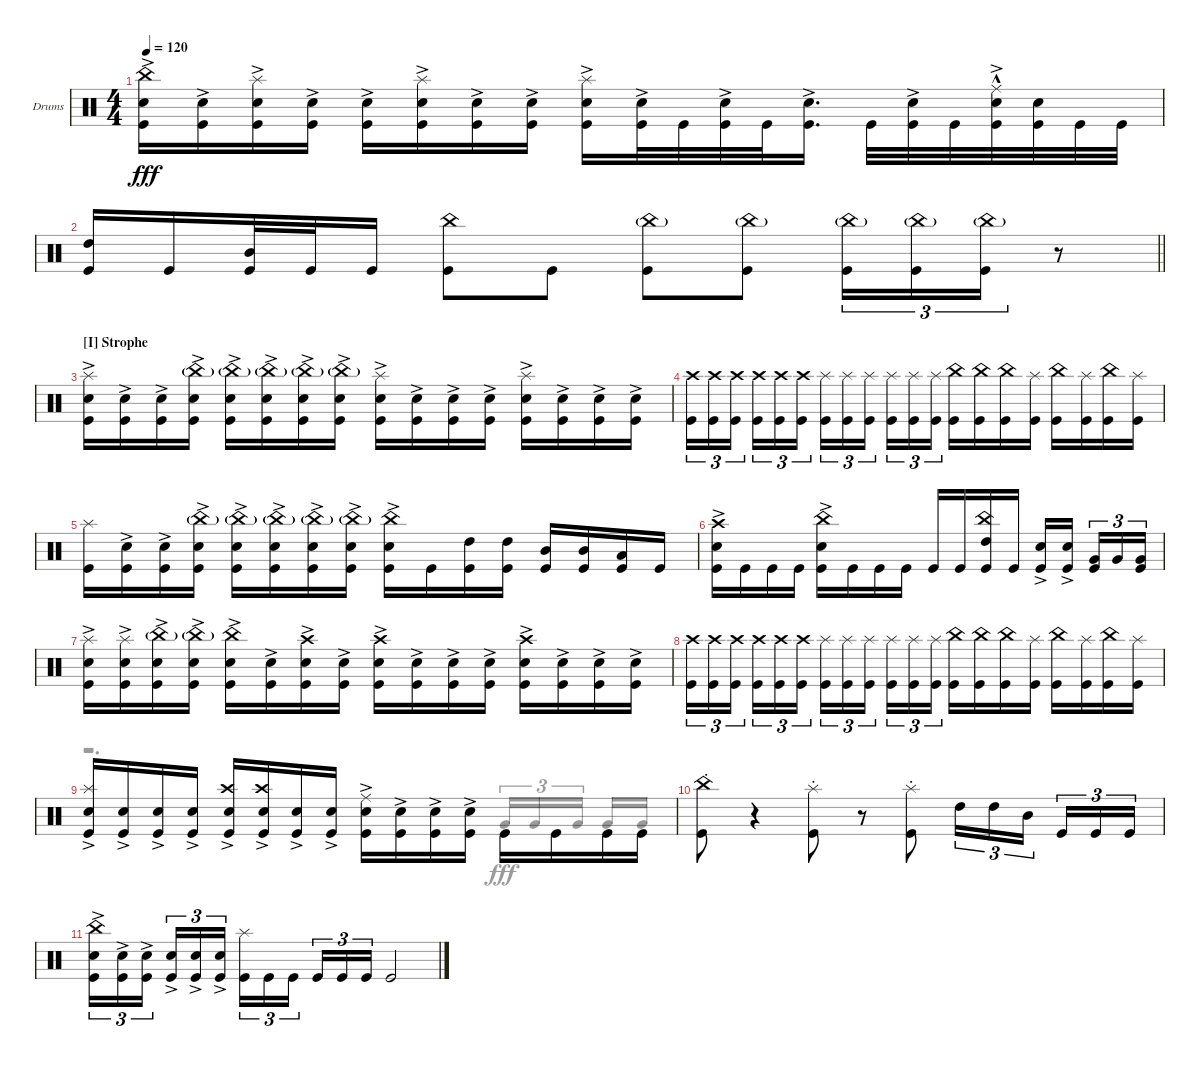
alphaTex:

\defaultSystemsLayout 4
\bracketExtendMode groupsimilarinstruments
\firstSystemTrackNameOrientation horizontal
\otherSystemsTrackNameOrientation horizontal
\track ("Drumkit" "Drums") {instrument percussion}
\staff {score}
\articulation defaults
\voice
\ts (4 4)
\tempo 120
\clef neutral
\ks c
("Kick (hit)" "Snare (hit) 2"{ac} "China (hit)").16{dy fff} ("Kick (hit)" "Snare (hit) 2"{ac}).16 ("Kick (hit)" "Snare (hit) 2"{ac} "Splash (hit)").16 ("Kick (hit)" "Snare (hit) 2"{ac}).16 ("Kick (hit)" "Snare (hit) 2"{ac}).16 ("Kick (hit)" "Snare (hit) 2"{ac} "Splash (hit)").16 ("Kick (hit)" "Snare (hit) 2"{ac}).16 ("Kick (hit)" "Snare (hit) 2"{ac}).16 ("Kick (hit)" "Snare (hit) 2"{ac} "Splash (hit)").16 ("Kick (hit)" "Snare (hit) 2"{ac}).32 "Kick (hit)".32 ("Kick (hit)" "Snare (hit) 2"{ac}).32 "Kick (hit)".32 ("Kick (hit)" "Snare (hit) 2"{ac}).16{d} "Kick (hit)".32 ("Kick (hit)" "Snare (hit) 2"{ac}).32 "Kick (hit)".32 ("Kick (hit)" "Snare (hit) 2"{hac} "Ride (middle)"{ac}).32 ("Kick (hit)" "Snare (hit) 2").32 "Kick (hit)".32 "Kick (hit)".32 |
\barLineRight lightlight
("Kick (hit)" "High Tom (hit)").16 "Kick (hit)".16 ("Kick (hit)" "Mid Tom (hit)").32 "Kick (hit)".32 "Kick (hit)".16 ("Kick (hit)" "China (hit)").8 "Kick (hit)".8 ("Kick (hit)" "China (hit)"{g}).8 ("Kick (hit)" "China (hit)"{g}).8 ("Kick (hit)" "China (hit)"{g}).16{tu (3 2)} ("Kick (hit)" "China (hit)"{g}).16{tu (3 2)} ("Kick (hit)" "China (hit)"{g}).16{tu (3 2)} r.8 |
\section ("I" "Strophe")
("Kick (hit)" "Splash (hit)" "Snare (hit) 2"{ac}).16 ("Kick (hit)" "Snare (hit) 2"{ac}).16 ("Kick (hit)" "Snare (hit) 2"{ac}).16 ("Kick (hit)" "Snare (hit) 2"{ac} "China (hit)"{g}).16 ("Kick (hit)" "Snare (hit) 2"{ac} "China (hit)"{g}).16 ("Kick (hit)" "Snare (hit) 2"{ac} "China (hit)"{g}).16 ("Kick (hit)" "Snare (hit) 2"{ac} "China (hit)"{g}).16 ("Kick (hit)" "Snare (hit) 2"{ac} "China (hit)"{g}).16 ("Kick (hit)" "Snare (hit) 2"{ac} "Splash (hit)").16 ("Kick (hit)" "Snare (hit) 2"{ac}).16 ("Kick (hit)" "Snare (hit) 2"{ac}).16 ("Kick (hit)" "Snare (hit) 2"{ac}).16 ("Kick (hit)" "Snare (hit) 2"{ac} "Splash (hit)").16 ("Kick (hit)" "Snare (hit) 2"{ac}).16 ("Kick (hit)" "Snare (hit) 2"{ac}).16 ("Kick (hit)" "Snare (hit) 2"{ac}).16 |
("Kick (hit)" "Crash high (hit)").16{tu (3 2)} ("Kick (hit)" "Crash high (hit)").16{tu (3 2)} ("Kick (hit)" "Crash high (hit)").16{tu (3 2)} ("Kick (hit)" "Crash high (hit)").16{tu (3 2)} ("Kick (hit)" "Crash high (hit)").16{tu (3 2)} ("Kick (hit)" "Crash high (hit)").16{tu (3 2)} ("Kick (hit)" "Splash (hit)").16{tu (3 2)} ("Kick (hit)" "Splash (hit)").16{tu (3 2)} ("Kick (hit)" "Splash (hit)").16{tu (3 2)} ("Kick (hit)" "Splash (hit)").16{tu (3 2)} ("Kick (hit)" "Splash (hit)").16{tu (3 2)} ("Kick (hit)" "Splash (hit)").16{tu (3 2)} ("Kick (hit)" "China (hit)").16 ("Kick (hit)" "China (hit)").16 ("Kick (hit)" "China (hit)").16 ("Kick (hit)" "Splash (hit)").16 ("Kick (hit)" "China (hit)").16 ("Kick (hit)" "Splash (hit)").16 ("Kick (hit)" "China (hit)").16 ("Kick (hit)" "Splash (hit)").16 |
("Kick (hit)" "Splash (hit)").16 ("Kick (hit)" "Snare (hit) 2"{ac}).16 ("Kick (hit)" "Snare (hit) 2"{ac}).16 ("Kick (hit)" "Snare (hit) 2"{ac} "China (hit)"{g}).16 ("Kick (hit)" "Snare (hit) 2"{ac} "China (hit)"{g}).16 ("Kick (hit)" "Snare (hit) 2"{ac} "China (hit)"{g}).16 ("Kick (hit)" "Snare (hit) 2"{ac} "China (hit)"{g}).16 ("Kick (hit)" "Snare (hit) 2"{ac} "China (hit)"{g}).16 ("Kick (hit)" "Snare (hit) 2"{ac} "China (hit)").16 "Kick (hit)".16 ("Kick (hit)" "High Tom (hit)").16 ("Kick (hit)" "High Tom (hit)").16 ("Kick (hit)" "Mid Tom (hit)").16 ("Kick (hit)" "Mid Tom (hit)").16 ("Kick (hit)" "Low Tom (hit)").16 "Kick (hit)".16 |
("Kick (hit)" "Snare (hit) 2"{ac} "Crash high (hit)").16 "Kick (hit)".16 "Kick (hit)".16 "Kick (hit)".16 ("Kick (hit)" "Snare (hit) 2"{ac} "China (hit)"{ac}).16 "Kick (hit)".16 "Kick (hit)".16 "Kick (hit)".16 "Kick (hit)".16 "Kick (hit)".16 ("Kick (hit)" "China (hit)" "High Tom (hit)").16 "Kick (hit)".16 ("Kick (hit)" "Snare (hit) 2"{ac}).16 ("Kick (hit)" "Snare (hit) 2"{ac}).16 ("Very Low Tom (hit)" "Kick (hit)").16{tu (3 2)} "Very Low Tom (hit)".16{tu (3 2)} ("Kick (hit)" "Very Low Tom (hit)").16{tu (3 2)} |
("Kick (hit)" "Splash (hit)" "Snare (hit) 2"{ac}).16 ("Kick (hit)" "Snare (hit) 2"{ac} "Splash (hit)").16 ("Kick (hit)" "Snare (hit) 2"{ac} "China (hit)"{g}).16 ("Kick (hit)" "Snare (hit) 2"{ac} "China (hit)"{g}).16 ("Kick (hit)" "Snare (hit) 2"{ac} "China (hit)").16 ("Kick (hit)" "Snare (hit) 2"{ac}).16 ("Kick (hit)" "Snare (hit) 2"{ac} "Crash high (hit)").16 ("Kick (hit)" "Snare (hit) 2"{ac}).16 ("Kick (hit)" "Snare (hit) 2"{ac} "Crash high (hit)").16 ("Kick (hit)" "Snare (hit) 2"{ac}).16 ("Kick (hit)" "Snare (hit) 2"{ac}).16 ("Kick (hit)" "Snare (hit) 2"{ac}).16 ("Kick (hit)" "Snare (hit) 2"{ac} "Crash high (hit)").16 ("Kick (hit)" "Snare (hit) 2"{ac}).16 ("Kick (hit)" "Snare (hit) 2"{ac}).16 ("Kick (hit)" "Snare (hit) 2"{ac}).16 |
("Kick (hit)" "Crash high (hit)").16{tu (3 2)} ("Kick (hit)" "Crash high (hit)").16{tu (3 2)} ("Kick (hit)" "Crash high (hit)").16{tu (3 2)} ("Kick (hit)" "Crash high (hit)").16{tu (3 2)} ("Kick (hit)" "Crash high (hit)").16{tu (3 2)} ("Kick (hit)" "Crash high (hit)").16{tu (3 2)} ("Kick (hit)" "Splash (hit)").16{tu (3 2)} ("Kick (hit)" "Splash (hit)").16{tu (3 2)} ("Kick (hit)" "Splash (hit)").16{tu (3 2)} ("Kick (hit)" "Splash (hit)").16{tu (3 2)} ("Kick (hit)" "Splash (hit)").16{tu (3 2)} ("Kick (hit)" "Splash (hit)").16{tu (3 2)} ("Kick (hit)" "China (hit)").16 ("Kick (hit)" "China (hit)").16 ("Kick (hit)" "China (hit)").16 ("Kick (hit)" "Splash (hit)").16 ("Kick (hit)" "China (hit)").16 ("Kick (hit)" "Splash (hit)").16 ("Kick (hit)" "China (hit)").16 ("Kick (hit)" "Splash (hit)").16 |
("Kick (hit)" "Splash (hit)" "Snare (hit) 2"{ac}).16 ("Kick (hit)" "Snare (hit) 2"{ac}).16 ("Kick (hit)" "Snare (hit) 2"{ac}).16 ("Kick (hit)" "Snare (hit) 2"{ac}).16 ("Kick (hit)" "Snare (hit) 2"{ac} "Crash high (hit)").16 ("Kick (hit)" "Snare (hit) 2"{ac} "Crash high (hit)").16 ("Kick (hit)" "Snare (hit) 2"{ac}).16 ("Kick (hit)" "Snare (hit) 2"{ac}).16 ("Kick (hit)" "Snare (hit) 2"{ac} "Ride (middle)"{ac}).16 ("Kick (hit)" "Snare (hit) 2"{ac}).16 ("Kick (hit)" "Snare (hit) 2"{ac}).16 ("Kick (hit)" "Snare (hit) 2"{ac}).16 "Kick (hit)".16{beam invert} "Kick (hit)".16 "Kick (hit)".16 "Kick (hit)".16 |
("Kick (hit)" "China (hit)"{st}).8 r.4 ("Kick (hit)" "Splash (hit)"{st}).8 r.8 ("Kick (hit)" "Splash (hit)"{st}).8 "High Tom (hit)".16{tu (3 2)} "High Tom (hit)".16{tu (3 2)} "Mid Tom (hit)".16{tu (3 2)} "Kick (hit)".16{tu (3 2)} "Kick (hit)".16{tu (3 2)} "Kick (hit)".16{tu (3 2)} |
("Kick (hit)" "Snare (hit) 2"{ac} "China (hit)").16{tu (3 2)} ("Kick (hit)" "Snare (hit) 2"{ac}).16{tu (3 2)} ("Kick (hit)" "Snare (hit) 2"{ac}).16{tu (3 2)} ("Snare (hit) 2"{ac} "Kick (hit)").16{tu (3 2)} ("Snare (hit) 2"{ac} "Kick (hit)").16{tu (3 2)} ("Snare (hit) 2"{ac} "Kick (hit)").16{tu (3 2)} ("Kick (hit)" "Splash (hit)").16{tu (3 2)} "Kick (hit)".16{tu (3 2)} "Kick (hit)".16{tu (3 2)} "Kick (hit)".16{tu (3 2)} "Kick (hit)".16{tu (3 2)} "Kick (hit)".16{tu (3 2)} "Kick (hit)".2
\voice
\clef neutral
\ottava regular
\simile none
\ks c
|
\barLineRight lightlight
|
|
|
|
|
|
|
r.2{d} "Very Low Tom (hit)".16{tu (3 2) beam invert} "Very Low Tom (hit)".16{tu (3 2)} "Very Low Tom (hit)".16{tu (3 2)} "Very Low Tom (hit)".16{beam invert} "Very Low Tom (hit)".16 |
|
